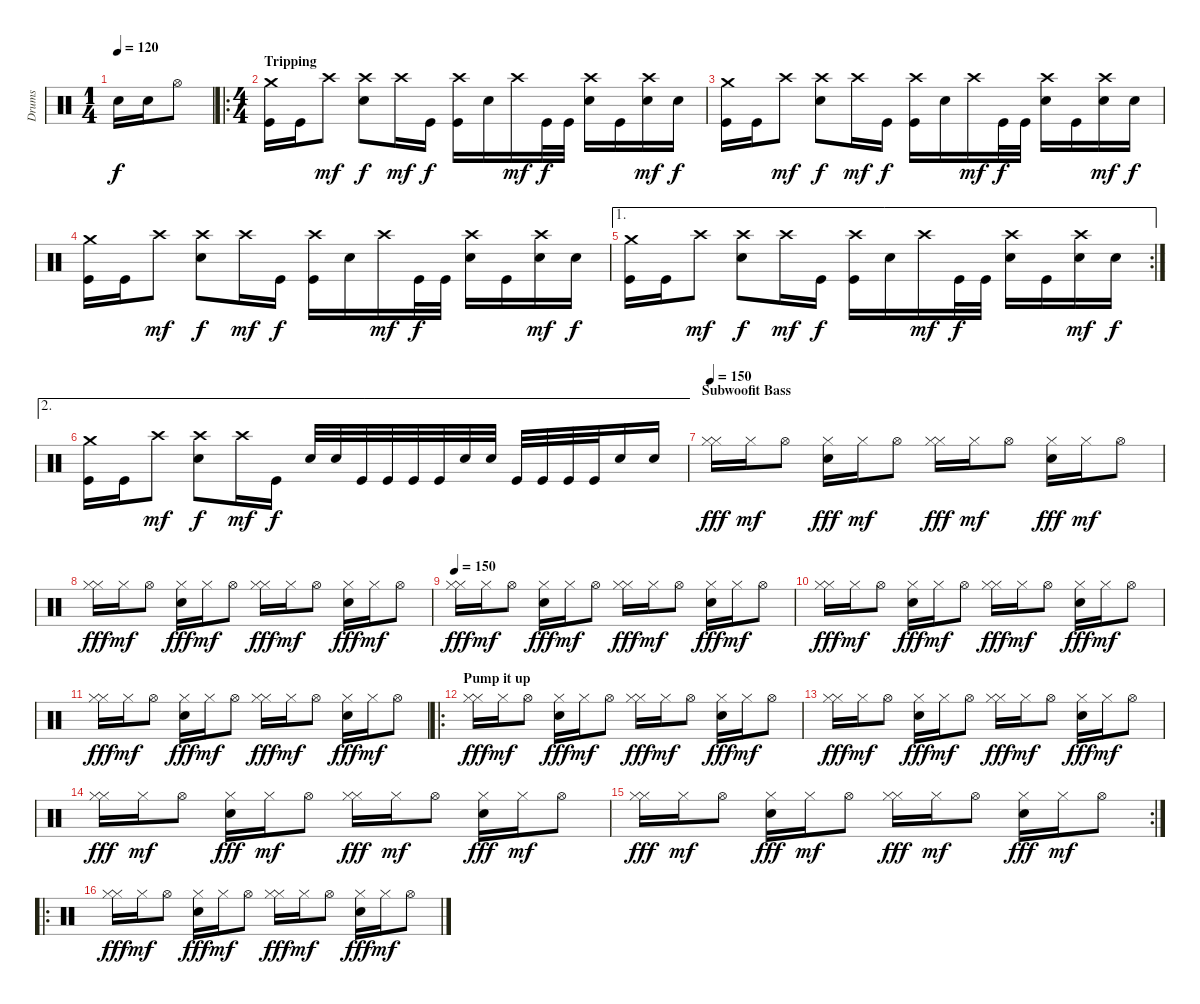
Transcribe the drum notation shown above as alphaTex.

\track ("Drums" "Drums") {instrument percussion}
\staff {score}
\articulation defaults
\ts (1 4)
\tempo 120
\clef neutral
\ks c "Electric Snare (hit)".16{dy f} "Electric Snare (hit)".16 "Hi-Hat (open)".8
|
\ro
\ts (4 4)
\section ("" "Tripping")
("Crash medium (hit)" "Kick (hit)").16 "Kick (hit)".16 "Crash high (hit)".8{dy mf} ("Crash high (hit)" "Electric Snare (hit)").8{dy f} "Crash high (hit)".16{dy mf} "Kick (hit)".16{dy f} ("Crash high (hit)" "Kick (hit)").16 "Electric Snare (hit)".16 "Crash high (hit)".16{dy mf} "Kick (hit)".32{dy f} "Kick (hit)".32 ("Crash high (hit)" "Electric Snare (hit)").16 "Kick (hit)".16 ("Crash high (hit)" "Electric Snare (hit)").16{dy mf} "Electric Snare (hit)".16{dy f} |
("Crash medium (hit)" "Kick (hit)").16 "Kick (hit)".16 "Crash high (hit)".8{dy mf} ("Crash high (hit)" "Electric Snare (hit)").8{dy f} "Crash high (hit)".16{dy mf} "Kick (hit)".16{dy f} ("Crash high (hit)" "Kick (hit)").16 "Electric Snare (hit)".16 "Crash high (hit)".16{dy mf} "Kick (hit)".32{dy f} "Kick (hit)".32 ("Crash high (hit)" "Electric Snare (hit)").16 "Kick (hit)".16 ("Crash high (hit)" "Electric Snare (hit)").16{dy mf} "Electric Snare (hit)".16{dy f} |
("Crash medium (hit)" "Kick (hit)").16 "Kick (hit)".16 "Crash high (hit)".8{dy mf} ("Crash high (hit)" "Electric Snare (hit)").8{dy f} "Crash high (hit)".16{dy mf} "Kick (hit)".16{dy f} ("Crash high (hit)" "Kick (hit)").16 "Electric Snare (hit)".16 "Crash high (hit)".16{dy mf} "Kick (hit)".32{dy f} "Kick (hit)".32 ("Crash high (hit)" "Electric Snare (hit)").16 "Kick (hit)".16 ("Crash high (hit)" "Electric Snare (hit)").16{dy mf} "Electric Snare (hit)".16{dy f} |
\ae 1
\rc 2
("Crash medium (hit)" "Kick (hit)").16 "Kick (hit)".16 "Crash high (hit)".8{dy mf} ("Crash high (hit)" "Electric Snare (hit)").8{dy f} "Crash high (hit)".16{dy mf} "Kick (hit)".16{dy f} ("Crash high (hit)" "Kick (hit)").16 "Electric Snare (hit)".16 "Crash high (hit)".16{dy mf} "Kick (hit)".32{dy f} "Kick (hit)".32 ("Crash high (hit)" "Electric Snare (hit)").16 "Kick (hit)".16 ("Crash high (hit)" "Electric Snare (hit)").16{dy mf} "Electric Snare (hit)".16{dy f} |
\ae 2
("Crash medium (hit)" "Kick (hit)").16 "Kick (hit)".16 "Crash high (hit)".8{dy mf} ("Crash high (hit)" "Electric Snare (hit)").8{dy f} "Crash high (hit)".16{dy mf} "Kick (hit)".16{dy f} "Electric Snare (hit)".32 "Electric Snare (hit)".32 "Kick (hit)".32 "Kick (hit)".32 "Kick (hit)".32 "Kick (hit)".32 "Electric Snare (hit)".32 "Electric Snare (hit)".32 "Kick (hit)".32 "Kick (hit)".32 "Kick (hit)".32 "Kick (hit)".32 "Electric Snare (hit)".16 "Electric Snare (hit)".16 |
\section ("" "Subwoofit Bass")
\tempo 150
("Hi-Hat (closed)" "Hi-Hat (closed)").16{dy fff} "Hi-Hat (closed)".16{dy mf} "Hi-Hat (open)".8 ("Hi-Hat (closed)" "Hand Clap (hit)").16{dy fff} "Hi-Hat (closed)".16{dy mf} "Hi-Hat (open)".8 ("Hi-Hat (closed)" "Hi-Hat (closed)").16{dy fff} "Hi-Hat (closed)".16{dy mf} "Hi-Hat (open)".8 ("Hi-Hat (closed)" "Hand Clap (hit)").16{dy fff} "Hi-Hat (closed)".16{dy mf} "Hi-Hat (open)".8 |
("Hi-Hat (closed)" "Hi-Hat (closed)").16{dy fff} "Hi-Hat (closed)".16{dy mf} "Hi-Hat (open)".8 ("Hi-Hat (closed)" "Hand Clap (hit)").16{dy fff} "Hi-Hat (closed)".16{dy mf} "Hi-Hat (open)".8 ("Hi-Hat (closed)" "Hi-Hat (closed)").16{dy fff} "Hi-Hat (closed)".16{dy mf} "Hi-Hat (open)".8 ("Hi-Hat (closed)" "Hand Clap (hit)").16{dy fff} "Hi-Hat (closed)".16{dy mf} "Hi-Hat (open)".8 |
\tempo 150
("Hi-Hat (closed)" "Hi-Hat (closed)").16{dy fff} "Hi-Hat (closed)".16{dy mf} "Hi-Hat (open)".8 ("Hi-Hat (closed)" "Hand Clap (hit)").16{dy fff} "Hi-Hat (closed)".16{dy mf} "Hi-Hat (open)".8 ("Hi-Hat (closed)" "Hi-Hat (closed)").16{dy fff} "Hi-Hat (closed)".16{dy mf} "Hi-Hat (open)".8 ("Hi-Hat (closed)" "Hand Clap (hit)").16{dy fff} "Hi-Hat (closed)".16{dy mf} "Hi-Hat (open)".8 |
("Hi-Hat (closed)" "Hi-Hat (closed)").16{dy fff} "Hi-Hat (closed)".16{dy mf} "Hi-Hat (open)".8 ("Hi-Hat (closed)" "Hand Clap (hit)").16{dy fff} "Hi-Hat (closed)".16{dy mf} "Hi-Hat (open)".8 ("Hi-Hat (closed)" "Hi-Hat (closed)").16{dy fff} "Hi-Hat (closed)".16{dy mf} "Hi-Hat (open)".8 ("Hi-Hat (closed)" "Hand Clap (hit)").16{dy fff} "Hi-Hat (closed)".16{dy mf} "Hi-Hat (open)".8 |
("Hi-Hat (closed)" "Hi-Hat (closed)").16{dy fff} "Hi-Hat (closed)".16{dy mf} "Hi-Hat (open)".8 ("Hi-Hat (closed)" "Hand Clap (hit)").16{dy fff} "Hi-Hat (closed)".16{dy mf} "Hi-Hat (open)".8 ("Hi-Hat (closed)" "Hi-Hat (closed)").16{dy fff} "Hi-Hat (closed)".16{dy mf} "Hi-Hat (open)".8 ("Hi-Hat (closed)" "Hand Clap (hit)").16{dy fff} "Hi-Hat (closed)".16{dy mf} "Hi-Hat (open)".8 |
\ro
\section ("" "Pump it up")
("Hi-Hat (closed)" "Hi-Hat (closed)").16{dy fff} "Hi-Hat (closed)".16{dy mf} "Hi-Hat (open)".8 ("Hi-Hat (closed)" "Hand Clap (hit)").16{dy fff} "Hi-Hat (closed)".16{dy mf} "Hi-Hat (open)".8 ("Hi-Hat (closed)" "Hi-Hat (closed)").16{dy fff} "Hi-Hat (closed)".16{dy mf} "Hi-Hat (open)".8 ("Hi-Hat (closed)" "Hand Clap (hit)").16{dy fff} "Hi-Hat (closed)".16{dy mf} "Hi-Hat (open)".8 |
("Hi-Hat (closed)" "Hi-Hat (closed)").16{dy fff} "Hi-Hat (closed)".16{dy mf} "Hi-Hat (open)".8 ("Hi-Hat (closed)" "Hand Clap (hit)").16{dy fff} "Hi-Hat (closed)".16{dy mf} "Hi-Hat (open)".8 ("Hi-Hat (closed)" "Hi-Hat (closed)").16{dy fff} "Hi-Hat (closed)".16{dy mf} "Hi-Hat (open)".8 ("Hi-Hat (closed)" "Hand Clap (hit)").16{dy fff} "Hi-Hat (closed)".16{dy mf} "Hi-Hat (open)".8 |
("Hi-Hat (closed)" "Hi-Hat (closed)").16{dy fff} "Hi-Hat (closed)".16{dy mf} "Hi-Hat (open)".8 ("Hi-Hat (closed)" "Hand Clap (hit)").16{dy fff} "Hi-Hat (closed)".16{dy mf} "Hi-Hat (open)".8 ("Hi-Hat (closed)" "Hi-Hat (closed)").16{dy fff} "Hi-Hat (closed)".16{dy mf} "Hi-Hat (open)".8 ("Hi-Hat (closed)" "Hand Clap (hit)").16{dy fff} "Hi-Hat (closed)".16{dy mf} "Hi-Hat (open)".8 |
\rc 2
("Hi-Hat (closed)" "Hi-Hat (closed)").16{dy fff} "Hi-Hat (closed)".16{dy mf} "Hi-Hat (open)".8 ("Hi-Hat (closed)" "Hand Clap (hit)").16{dy fff} "Hi-Hat (closed)".16{dy mf} "Hi-Hat (open)".8 ("Hi-Hat (closed)" "Hi-Hat (closed)").16{dy fff} "Hi-Hat (closed)".16{dy mf} "Hi-Hat (open)".8 ("Hi-Hat (closed)" "Hand Clap (hit)").16{dy fff} "Hi-Hat (closed)".16{dy mf} "Hi-Hat (open)".8 |
\ro
("Hi-Hat (closed)" "Hi-Hat (closed)").16{dy fff} "Hi-Hat (closed)".16{dy mf} "Hi-Hat (open)".8 ("Hi-Hat (closed)" "Hand Clap (hit)").16{dy fff} "Hi-Hat (closed)".16{dy mf} "Hi-Hat (open)".8 ("Hi-Hat (closed)" "Hi-Hat (closed)").16{dy fff} "Hi-Hat (closed)".16{dy mf} "Hi-Hat (open)".8 ("Hi-Hat (closed)" "Hand Clap (hit)").16{dy fff} "Hi-Hat (closed)".16{dy mf} "Hi-Hat (open)".8
